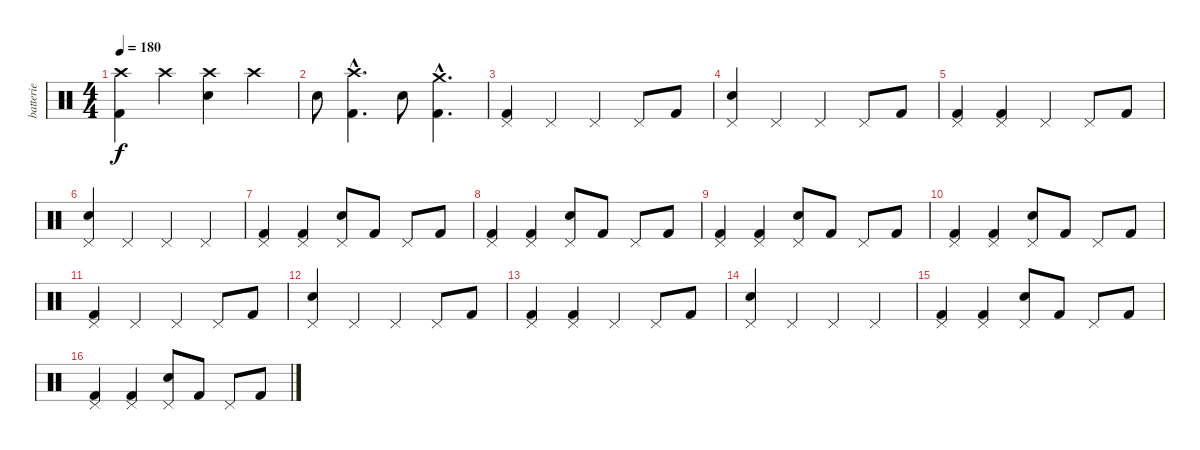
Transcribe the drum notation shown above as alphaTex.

\track ("batterie" "batterie") {instrument percussion}
\staff {score}
\articulation defaults
\ts (4 4)
\tempo 180
\clef neutral
\ks c
("Crash high (hit)" "Kick (hit) 2").4{dy f} "Crash high (hit)".4 ("Crash high (hit)" "Electric Snare (hit)").4 "Crash high (hit)".4 |
"Electric Snare (hit)".8 ("Crash high (hit)"{hac} "Kick (hit) 2"{hac}).4{d} "Electric Snare (hit)".8 ("Crash medium (hit)"{hac} "Kick (hit) 2"{hac}).4{d} |
("Pedal Hi-Hat (hit)" "Kick (hit) 2").4 "Pedal Hi-Hat (hit)".4 "Pedal Hi-Hat (hit)".4 "Pedal Hi-Hat (hit)".8 "Kick (hit) 2".8 |
("Pedal Hi-Hat (hit)" "Electric Snare (hit)").4 "Pedal Hi-Hat (hit)".4 "Pedal Hi-Hat (hit)".4 "Pedal Hi-Hat (hit)".8 "Kick (hit) 2".8 |
("Pedal Hi-Hat (hit)" "Kick (hit) 2").4 ("Pedal Hi-Hat (hit)" "Kick (hit) 2").4 "Pedal Hi-Hat (hit)".4 "Pedal Hi-Hat (hit)".8 "Kick (hit) 2".8 |
("Pedal Hi-Hat (hit)" "Electric Snare (hit)").4 "Pedal Hi-Hat (hit)".4 "Pedal Hi-Hat (hit)".4 "Pedal Hi-Hat (hit)".4 |
("Pedal Hi-Hat (hit)" "Kick (hit) 2").4 ("Pedal Hi-Hat (hit)" "Kick (hit) 2").4 ("Pedal Hi-Hat (hit)" "Electric Snare (hit)").8 "Kick (hit) 2".8 "Pedal Hi-Hat (hit)".8 "Kick (hit) 2".8 |
("Pedal Hi-Hat (hit)" "Kick (hit) 2").4 ("Pedal Hi-Hat (hit)" "Kick (hit) 2").4 ("Pedal Hi-Hat (hit)" "Electric Snare (hit)").8 "Kick (hit) 2".8 "Pedal Hi-Hat (hit)".8 "Kick (hit) 2".8 |
("Pedal Hi-Hat (hit)" "Kick (hit) 2").4 ("Pedal Hi-Hat (hit)" "Kick (hit) 2").4 ("Pedal Hi-Hat (hit)" "Electric Snare (hit)").8 "Kick (hit) 2".8 "Pedal Hi-Hat (hit)".8 "Kick (hit) 2".8 |
("Pedal Hi-Hat (hit)" "Kick (hit) 2").4 ("Pedal Hi-Hat (hit)" "Kick (hit) 2").4 ("Pedal Hi-Hat (hit)" "Electric Snare (hit)").8 "Kick (hit) 2".8 "Pedal Hi-Hat (hit)".8 "Kick (hit) 2".8 |
("Pedal Hi-Hat (hit)" "Kick (hit) 2").4 "Pedal Hi-Hat (hit)".4 "Pedal Hi-Hat (hit)".4 "Pedal Hi-Hat (hit)".8 "Kick (hit) 2".8 |
("Pedal Hi-Hat (hit)" "Electric Snare (hit)").4 "Pedal Hi-Hat (hit)".4 "Pedal Hi-Hat (hit)".4 "Pedal Hi-Hat (hit)".8 "Kick (hit) 2".8 |
("Pedal Hi-Hat (hit)" "Kick (hit) 2").4 ("Pedal Hi-Hat (hit)" "Kick (hit) 2").4 "Pedal Hi-Hat (hit)".4 "Pedal Hi-Hat (hit)".8 "Kick (hit) 2".8 |
("Pedal Hi-Hat (hit)" "Electric Snare (hit)").4 "Pedal Hi-Hat (hit)".4 "Pedal Hi-Hat (hit)".4 "Pedal Hi-Hat (hit)".4 |
("Pedal Hi-Hat (hit)" "Kick (hit) 2").4 ("Pedal Hi-Hat (hit)" "Kick (hit) 2").4 ("Pedal Hi-Hat (hit)" "Electric Snare (hit)").8 "Kick (hit) 2".8 "Pedal Hi-Hat (hit)".8 "Kick (hit) 2".8 |
("Pedal Hi-Hat (hit)" "Kick (hit) 2").4 ("Pedal Hi-Hat (hit)" "Kick (hit) 2").4 ("Pedal Hi-Hat (hit)" "Electric Snare (hit)").8 "Kick (hit) 2".8 "Pedal Hi-Hat (hit)".8 "Kick (hit) 2".8
